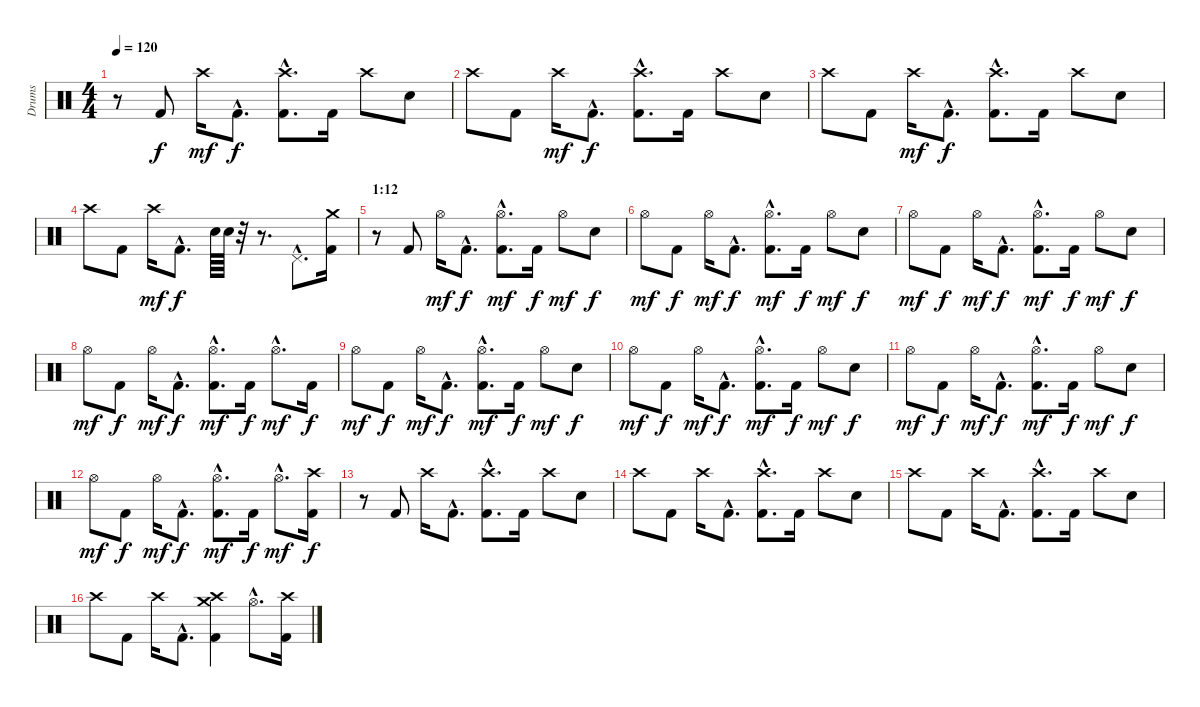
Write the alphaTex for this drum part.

\track ("Drums" "Drums") {instrument percussion}
\staff {score}
\articulation defaults
\ts (4 4)
\tempo 120
\clef neutral
\ks c
r.8{dy ff} "Kick (hit) 2".8{dy f} "Crash high (hit)".16{dy mf} "Kick (hit) 2"{hac}.8{d dy f} ("Crash high (hit)"{hac} "Kick (hit) 2"{hac}).8{d} "Kick (hit) 2".16 "Crash high (hit)".8 "Electric Snare (hit)".8 |
"Crash high (hit)".8 "Kick (hit) 2".8 "Crash high (hit)".16{dy mf} "Kick (hit) 2"{hac}.8{d dy f} ("Crash high (hit)"{hac} "Kick (hit) 2"{hac}).8{d} "Kick (hit) 2".16 "Crash high (hit)".8 "Electric Snare (hit)".8 |
"Crash high (hit)".8 "Kick (hit) 2".8 "Crash high (hit)".16{dy mf} "Kick (hit) 2"{hac}.8{d dy f} ("Crash high (hit)"{hac} "Kick (hit) 2"{hac}).8{d} "Kick (hit) 2".16 "Crash high (hit)".8 "Electric Snare (hit)".8 |
"Crash high (hit)".8 "Kick (hit) 2".8 "Crash high (hit)".16{dy mf} "Kick (hit) 2"{hac}.8{d dy f} "Electric Snare (hit)".64 "Electric Snare (hit)".64 r.32 r.8{d} "Pedal Hi-Hat (hit)"{hac}.8{d} ("Crash medium (hit)" "Kick (hit) 2").16 |
\section ("" "1:12")
r.8 "Kick (hit) 2".8 "Hi-Hat (open)".16{dy mf} "Kick (hit) 2"{hac}.8{d dy f} ("Hi-Hat (open)"{hac} "Kick (hit) 2"{hac}).8{d dy mf} "Kick (hit) 2".16{dy f} "Hi-Hat (open)".8{dy mf} "Electric Snare (hit)".8{dy f} |
"Hi-Hat (open)".8{dy mf} "Kick (hit) 2".8{dy f} "Hi-Hat (open)".16{dy mf} "Kick (hit) 2"{hac}.8{d dy f} ("Hi-Hat (open)"{hac} "Kick (hit) 2"{hac}).8{d dy mf} "Kick (hit) 2".16{dy f} "Hi-Hat (open)".8{dy mf} "Electric Snare (hit)".8{dy f} |
"Hi-Hat (open)".8{dy mf} "Kick (hit) 2".8{dy f} "Hi-Hat (open)".16{dy mf} "Kick (hit) 2"{hac}.8{d dy f} ("Hi-Hat (open)"{hac} "Kick (hit) 2"{hac}).8{d dy mf} "Kick (hit) 2".16{dy f} "Hi-Hat (open)".8{dy mf} "Electric Snare (hit)".8{dy f} |
"Hi-Hat (open)".8{dy mf} "Kick (hit) 2".8{dy f} "Hi-Hat (open)".16{dy mf} "Kick (hit) 2"{hac}.8{d dy f} ("Hi-Hat (open)"{hac} "Kick (hit) 2"{hac}).8{d dy mf} "Kick (hit) 2".16{dy f} "Hi-Hat (open)"{hac}.8{d dy mf} "Kick (hit) 2".16{dy f} |
"Hi-Hat (open)".8{dy mf} "Kick (hit) 2".8{dy f} "Hi-Hat (open)".16{dy mf} "Kick (hit) 2"{hac}.8{d dy f} ("Hi-Hat (open)"{hac} "Kick (hit) 2"{hac}).8{d dy mf} "Kick (hit) 2".16{dy f} "Hi-Hat (open)".8{dy mf} "Electric Snare (hit)".8{dy f} |
"Hi-Hat (open)".8{dy mf} "Kick (hit) 2".8{dy f} "Hi-Hat (open)".16{dy mf} "Kick (hit) 2"{hac}.8{d dy f} ("Hi-Hat (open)"{hac} "Kick (hit) 2"{hac}).8{d dy mf} "Kick (hit) 2".16{dy f} "Hi-Hat (open)".8{dy mf} "Electric Snare (hit)".8{dy f} |
"Hi-Hat (open)".8{dy mf} "Kick (hit) 2".8{dy f} "Hi-Hat (open)".16{dy mf} "Kick (hit) 2"{hac}.8{d dy f} ("Hi-Hat (open)"{hac} "Kick (hit) 2"{hac}).8{d dy mf} "Kick (hit) 2".16{dy f} "Hi-Hat (open)".8{dy mf} "Electric Snare (hit)".8{dy f} |
"Hi-Hat (open)".8{dy mf} "Kick (hit) 2".8{dy f} "Hi-Hat (open)".16{dy mf} "Kick (hit) 2"{hac}.8{d dy f} ("Hi-Hat (open)"{hac} "Kick (hit) 2"{hac}).8{d dy mf} "Kick (hit) 2".16{dy f} "Hi-Hat (open)"{hac}.8{d dy mf} ("Crash high (hit)" "Kick (hit) 2").16{dy f} |
r.8 "Kick (hit) 2".8 "Crash high (hit)".16 "Kick (hit) 2"{hac}.8{d} ("Crash high (hit)"{hac} "Kick (hit) 2"{hac}).8{d} "Kick (hit) 2".16 "Crash high (hit)".8 "Electric Snare (hit)".8 |
"Crash high (hit)".8 "Kick (hit) 2".8 "Crash high (hit)".16 "Kick (hit) 2"{hac}.8{d} ("Crash high (hit)"{hac} "Kick (hit) 2"{hac}).8{d} "Kick (hit) 2".16 "Crash high (hit)".8 "Electric Snare (hit)".8 |
"Crash high (hit)".8 "Kick (hit) 2".8 "Crash high (hit)".16 "Kick (hit) 2"{hac}.8{d} ("Crash high (hit)"{hac} "Kick (hit) 2"{hac}).8{d} "Kick (hit) 2".16 "Crash high (hit)".8 "Electric Snare (hit)".8 |
"Crash high (hit)".8 "Kick (hit) 2".8 "Crash high (hit)".16 "Kick (hit) 2"{hac}.8{d} ("Crash high (hit)" "Crash medium (hit)" "Kick (hit) 2").4 "Hi-Hat (open)"{hac}.8{d} ("Crash high (hit)" "Kick (hit) 2").16
